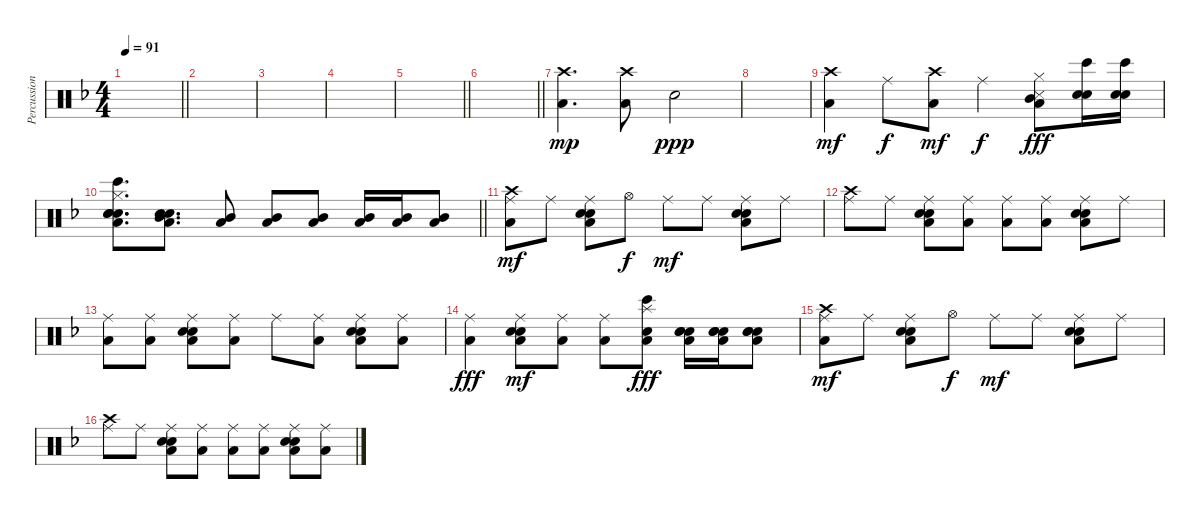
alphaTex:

\track ("Percussion" "Percussion") {instrument percussion}
\staff {score}
\articulation defaults
\ts (4 4)
\tempo 91
\clef neutral
\barLineRight lightlight
\ks f
|
|
|
|
\barLineRight lightlight
|
\barLineRight lightlight
|
("Crash high (hit)" "Low Floor Tom (hit)").4{d dy mp} ("Crash high (hit)" "Low Floor Tom (hit)").8 "Snare (hit)".2{dy ppp} |
|
("Low Floor Tom (hit)" "Crash high (hit)").4{dy mf} "Ride (middle)".8{dy f} ("Low Floor Tom (hit)" "Crash high (hit)").8{dy mf} "Ride (middle)".4{dy f} ("Mid Tom (hit)" "Snare (side stick) 3" "Low Floor Tom (hit)" "Hi-Hat (closed)").8{dy fff} ("Snare (hit) 2" "Hand Clap (hit)" "Bongo High (hit)").16 ("Snare (hit) 2" "Hand Clap (hit)" "Bongo High (hit)").16 |
\barLineRight lightlight
("Low Floor Tom (hit)" "Electric Snare (hit)" "Snare (hit) 2" "Hand Clap (hit)" "Bongo High (hit)" "Hi-Hat (closed)").8{d} ("Electric Snare (hit)" "Low Floor Tom (hit)" "Snare (hit) 2" "Mid Tom (hit)").8{d} ("Low Floor Tom (hit)" "Mid Tom (hit)").8 ("Low Floor Tom (hit)" "Mid Tom (hit)").8 ("Low Floor Tom (hit)" "Mid Tom (hit)").8 ("Low Floor Tom (hit)" "Mid Tom (hit)").16 ("Low Floor Tom (hit)" "Mid Tom (hit)").16 ("Low Floor Tom (hit)" "Mid Tom (hit)").8 |
("Low Floor Tom (hit)" "Crash high (hit)" "Ride (middle)").8{dy mf} "Ride (middle)".8 ("Low Floor Tom (hit)" "Snare (hit) 2" "Electric Snare (hit)" "Ride (middle)").8 "Hi-Hat (open)".8{dy f} "Ride (middle)".8{dy mf} "Ride (middle)".8 ("Electric Snare (hit)" "Snare (hit) 2" "Low Floor Tom (hit)" "Ride (middle)").8 "Ride (middle)".8 |
("Crash high (hit)" "Ride (middle)").8 "Ride (middle)".8 ("Low Floor Tom (hit)" "Snare (hit) 2" "Electric Snare (hit)" "Ride (middle)").8 ("Low Floor Tom (hit)" "Ride (middle)").8 ("Low Floor Tom (hit)" "Ride (middle)").8 ("Low Floor Tom (hit)" "Ride (middle)").8 ("Electric Snare (hit)" "Low Floor Tom (hit)" "Snare (hit) 2" "Ride (middle)").8 "Ride (middle)".8 |
("Low Floor Tom (hit)" "Ride (middle)").8 ("Low Floor Tom (hit)" "Ride (middle)").8 ("Electric Snare (hit)" "Low Floor Tom (hit)" "Snare (hit) 2" "Ride (middle)").8 ("Low Floor Tom (hit)" "Ride (middle)").8 "Ride (middle)".8 ("Low Floor Tom (hit)" "Ride (middle)").8 ("Electric Snare (hit)" "Low Floor Tom (hit)" "Snare (hit) 2" "Ride (middle)").8 ("Low Floor Tom (hit)" "Ride (middle)").8 |
("Ride (middle)" "Low Floor Tom (hit)").4{dy fff} ("Electric Snare (hit)" "Low Floor Tom (hit)" "Snare (hit) 2" "Ride (middle)").8{dy mf} ("Low Floor Tom (hit)" "Ride (middle)").8 ("Low Floor Tom (hit)" "Ride (middle)").8 ("Bongo High (hit)" "Low Floor Tom (hit)" "Snare (hit) 2" "Splash (hit)").8{dy fff} ("Low Floor Tom (hit)" "Snare (hit) 2" "Electric Snare (hit)" "Hand Clap (hit)").16 ("Low Floor Tom (hit)" "Snare (hit) 2" "Electric Snare (hit)" "Hand Clap (hit)").16 ("Low Floor Tom (hit)" "Snare (hit) 2" "Electric Snare (hit)" "Hand Clap (hit)").8 |
("Low Floor Tom (hit)" "Crash high (hit)" "Ride (middle)").8{dy mf} "Ride (middle)".8 ("Low Floor Tom (hit)" "Snare (hit) 2" "Electric Snare (hit)" "Ride (middle)").8 "Hi-Hat (open)".8{dy f} "Ride (middle)".8{dy mf} "Ride (middle)".8 ("Electric Snare (hit)" "Snare (hit) 2" "Low Floor Tom (hit)" "Ride (middle)").8 "Ride (middle)".8 |
("Crash high (hit)" "Ride (middle)").8 "Ride (middle)".8 ("Electric Snare (hit)" "Low Floor Tom (hit)" "Snare (hit) 2" "Ride (middle)").8 ("Low Floor Tom (hit)" "Ride (middle)").8 ("Low Floor Tom (hit)" "Ride (middle)").8 ("Low Floor Tom (hit)" "Ride (middle)").8 ("Electric Snare (hit)" "Low Floor Tom (hit)" "Snare (hit) 2" "Ride (middle)").8 ("Low Floor Tom (hit)" "Ride (middle)").8
